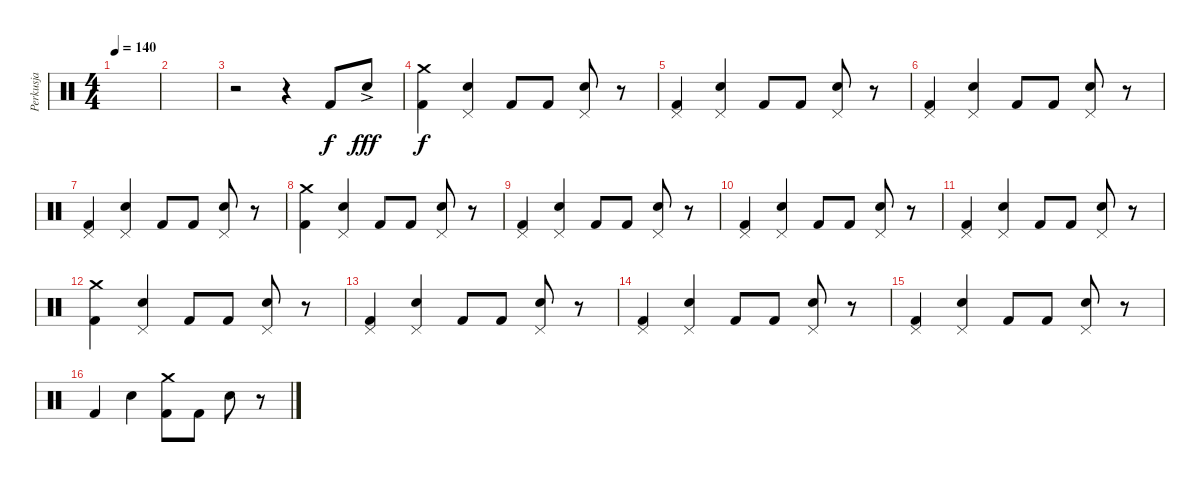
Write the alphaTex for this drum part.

\track ("Perkusja" "Perkusja") {instrument percussion}
\staff {score}
\articulation defaults
\ts (4 4)
\tempo 140
\clef neutral
\ks c
|
|
r.2 r.4 "Kick (hit) 2".8 "Snare (hit) 2"{ac}.8{dy fff} |
("Crash medium (hit)" "Kick (hit) 2").4{dy f} ("Pedal Hi-Hat (hit)" "Snare (hit) 2").4 "Kick (hit) 2".8 "Kick (hit) 2".8 ("Pedal Hi-Hat (hit)" "Snare (hit) 2").8 r.8 |
("Pedal Hi-Hat (hit)" "Kick (hit) 2").4 ("Pedal Hi-Hat (hit)" "Snare (hit) 2").4 "Kick (hit) 2".8 "Kick (hit) 2".8 ("Pedal Hi-Hat (hit)" "Snare (hit) 2").8 r.8 |
("Pedal Hi-Hat (hit)" "Kick (hit) 2").4 ("Pedal Hi-Hat (hit)" "Snare (hit) 2").4 "Kick (hit) 2".8 "Kick (hit) 2".8 ("Pedal Hi-Hat (hit)" "Snare (hit) 2").8 r.8 |
("Pedal Hi-Hat (hit)" "Kick (hit) 2").4 ("Pedal Hi-Hat (hit)" "Snare (hit) 2").4 "Kick (hit) 2".8 "Kick (hit) 2".8 ("Pedal Hi-Hat (hit)" "Snare (hit) 2").8 r.8 |
("Crash medium (hit)" "Kick (hit) 2").4 ("Pedal Hi-Hat (hit)" "Snare (hit) 2").4 "Kick (hit) 2".8 "Kick (hit) 2".8 ("Pedal Hi-Hat (hit)" "Snare (hit) 2").8 r.8 |
("Pedal Hi-Hat (hit)" "Kick (hit) 2").4 ("Pedal Hi-Hat (hit)" "Snare (hit) 2").4 "Kick (hit) 2".8 "Kick (hit) 2".8 ("Pedal Hi-Hat (hit)" "Snare (hit) 2").8 r.8 |
("Pedal Hi-Hat (hit)" "Kick (hit) 2").4 ("Pedal Hi-Hat (hit)" "Snare (hit) 2").4 "Kick (hit) 2".8 "Kick (hit) 2".8 ("Pedal Hi-Hat (hit)" "Snare (hit) 2").8 r.8 |
("Pedal Hi-Hat (hit)" "Kick (hit) 2").4 ("Pedal Hi-Hat (hit)" "Snare (hit) 2").4 "Kick (hit) 2".8 "Kick (hit) 2".8 ("Pedal Hi-Hat (hit)" "Snare (hit) 2").8 r.8 |
("Crash medium (hit)" "Kick (hit) 2").4 ("Pedal Hi-Hat (hit)" "Snare (hit) 2").4 "Kick (hit) 2".8 "Kick (hit) 2".8 ("Pedal Hi-Hat (hit)" "Snare (hit) 2").8 r.8 |
("Pedal Hi-Hat (hit)" "Kick (hit) 2").4 ("Pedal Hi-Hat (hit)" "Snare (hit) 2").4 "Kick (hit) 2".8 "Kick (hit) 2".8 ("Pedal Hi-Hat (hit)" "Snare (hit) 2").8 r.8 |
("Pedal Hi-Hat (hit)" "Kick (hit) 2").4 ("Pedal Hi-Hat (hit)" "Snare (hit) 2").4 "Kick (hit) 2".8 "Kick (hit) 2".8 ("Pedal Hi-Hat (hit)" "Snare (hit) 2").8 r.8 |
("Pedal Hi-Hat (hit)" "Kick (hit) 2").4 ("Pedal Hi-Hat (hit)" "Snare (hit) 2").4 "Kick (hit) 2".8 "Kick (hit) 2".8 ("Pedal Hi-Hat (hit)" "Snare (hit) 2").8 r.8 |
"Kick (hit) 2".4 "Snare (hit) 2".4 ("Crash medium (hit)" "Kick (hit) 2").8 "Kick (hit) 2".8 "Snare (hit) 2".8 r.8
